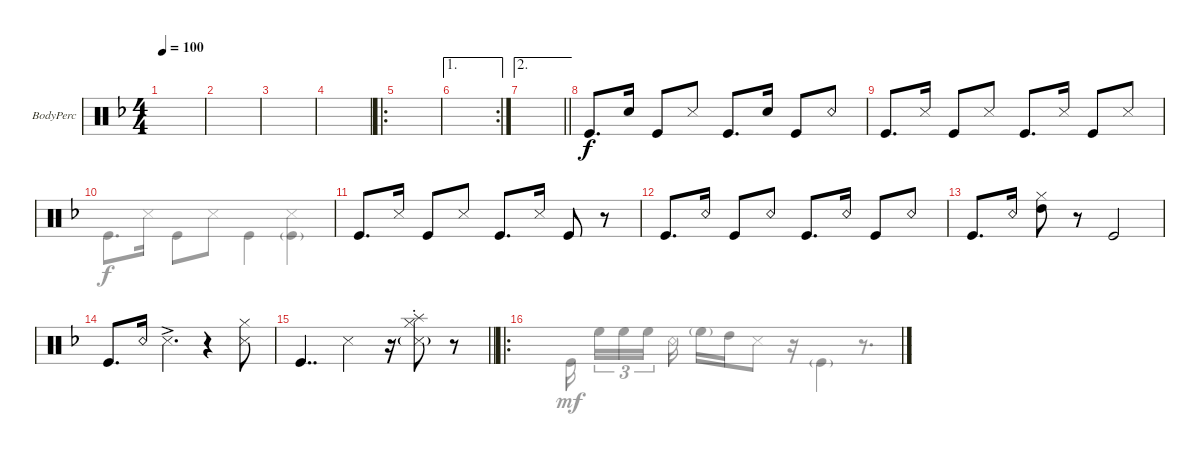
\defaultSystemsLayout 4
\firstSystemTrackNameOrientation horizontal
\otherSystemsTrackNameOrientation horizontal
\track ("Percussion" "BodyPerc") {instrument percussion}
\staff {score}
\articulation defaults
\voice
\ts (4 4)
\tempo 100
\clef neutral
\ks dminor
|
|
|
|
\ro
|
\ae 1
\rc 2
|
\ae 2
\scale
0.543768
\barLineRight lightlight
|
\scale
0.456364 "Kick (hit)".8{d dy f} "Snare (hit) 2".16 "Kick (hit)".8 "Snare (side stick) 3".8 "Kick (hit)".8{d} "Snare (hit) 2".16 "Kick (hit)".8 "Snare (rim shot)".8 |
"Kick (hit)".8{d} "Snare (side stick) 3".16 "Kick (hit)".8 "Snare (side stick) 3".8 "Kick (hit)".8{d} "Snare (side stick) 3".16 "Kick (hit)".8 "Snare (side stick) 3".8 |
|
"Kick (hit)".8{d} "Snare (side stick) 3".16 "Kick (hit)".8 "Snare (side stick) 3".8 "Kick (hit)".8{d} "Snare (side stick) 3".16 "Kick (hit)".8 r.8 |
"Kick (hit)".8{d} "Snare (rim shot)".16 "Kick (hit)".8 "Snare (rim shot)".8 "Kick (hit)".8{d} "Snare (rim shot)".16 "Kick (hit)".8 "Snare (rim shot)".8 |
\scale
0.652907 "Kick (hit)".8{d} "Snare (rim shot)".16 ("High Tom (hit)" "Hi-Hat (closed)").8 r.8 "Kick (hit)".2 |
\scale
0.346914 "Kick (hit)".8{d} "Snare (rim shot)".16 "Snare (side stick) 3"{ac}.4{d} r.4 ("Snare (side stick) 3" "Hi-Hat (closed)").8 |
\scale
0.554686
\barLineRight lightlight "Kick (hit)".4{dd} "Snare (side stick) 3".4
r.16 ("Snare (side stick) 3"{g} "Hi-Hat (closed)" "Splash (hit)"{st}).8 r.8 |
\ro
\scale
0.445536
\voice
\clef neutral
\ottava regular
\simile none
\ks dminor
|
|
|
|
|
|
\barLineRight lightlight
|
|
|
"Kick (hit)".8{d} "Snare (side stick) 3".16 "Kick (hit)".8 "Snare (side stick) 3".8 "Kick (hit)".4 ("Kick (hit)"{g} "Snare (side stick) 3").4 |
|
|
|
|
\barLineRight lightlight
|
"Kick (hit)".16{dy mf} "High Floor Tom (hit)".16{tu (3 2)} "High Floor Tom (hit)".16{tu (3 2)} "High Floor Tom (hit)".16{tu (3 2)} "Snare (rim shot)".16 "High Floor Tom (hit)"{g}.16 "High Tom (hit)".16 "Snare (side stick) 3".8 r.16 "Kick (hit)"{g}.4 r.8{d}
